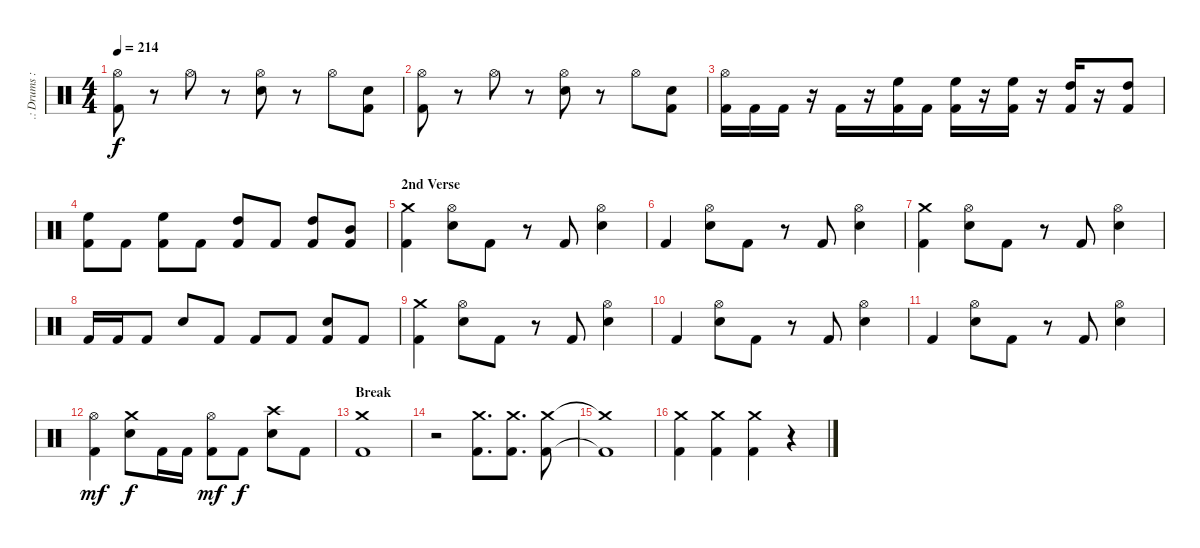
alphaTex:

\track (".: Drums :." ".: Drums :") {instrument percussion}
\staff {score}
\articulation defaults
\ts (4 4)
\tempo 214
\clef neutral
\ks c
("Kick (hit) 2" "Hi-Hat (open)").8{dy f} r.8 "Hi-Hat (open)".8 r.8 ("Snare (hit) 2" "Hi-Hat (open)").8 r.8 "Hi-Hat (open)".8 ("Snare (hit) 2" "Kick (hit) 2").8 |
("Kick (hit) 2" "Hi-Hat (open)").8 r.8 "Hi-Hat (open)".8 r.8 ("Snare (hit) 2" "Hi-Hat (open)").8 r.8 "Hi-Hat (open)".8 ("Snare (hit) 2" "Kick (hit) 2").8 |
("Kick (hit) 2" "Hi-Hat (open)").16 "Kick (hit) 2".16 "Kick (hit) 2".16 r.16 "Kick (hit) 2".16 r.16 ("Kick (hit) 2" "High Floor Tom (hit)").16 "Kick (hit) 2".16 ("Kick (hit) 2" "High Floor Tom (hit)").16 r.16 ("Kick (hit) 2" "High Floor Tom (hit)").16 r.16 ("Kick (hit) 2" "High Tom (hit)").16 r.16 ("Kick (hit) 2" "High Tom (hit)").8 |
("Kick (hit) 2" "High Floor Tom (hit)").8 "Kick (hit) 2".8 ("Kick (hit) 2" "High Floor Tom (hit)").8 "Kick (hit) 2".8 ("Kick (hit) 2" "High Tom (hit)").8 "Kick (hit) 2".8 ("Kick (hit) 2" "High Tom (hit)").8 ("Kick (hit) 2" "Mid Tom (hit)").8 |
\section ("" "2nd Verse")
("Crash medium (hit)" "Kick (hit) 2").4 ("Snare (hit) 2" "Hi-Hat (open)").8 "Kick (hit) 2".8 r.8 "Kick (hit) 2".8 ("Snare (hit) 2" "Hi-Hat (open)").4 |
"Kick (hit) 2".4 ("Snare (hit) 2" "Hi-Hat (open)").8 "Kick (hit) 2".8 r.8 "Kick (hit) 2".8 ("Snare (hit) 2" "Hi-Hat (open)").4 |
("Crash medium (hit)" "Kick (hit) 2").4 ("Snare (hit) 2" "Hi-Hat (open)").8 "Kick (hit) 2".8 r.8 "Kick (hit) 2".8 ("Snare (hit) 2" "Hi-Hat (open)").4 |
"Kick (hit) 2".16 "Kick (hit) 2".16 "Kick (hit) 2".8 "Snare (hit) 2".8 "Kick (hit) 2".8 "Kick (hit) 2".8 "Kick (hit) 2".8 ("Kick (hit) 2" "Snare (hit) 2").8 "Kick (hit) 2".8 |
("Crash medium (hit)" "Kick (hit) 2").4 ("Snare (hit) 2" "Hi-Hat (open)").8 "Kick (hit) 2".8 r.8 "Kick (hit) 2".8 ("Snare (hit) 2" "Hi-Hat (open)").4 |
"Kick (hit) 2".4 ("Electric Snare (hit)" "Hi-Hat (open)").8 "Kick (hit) 2".8 r.8 "Kick (hit) 2".8 ("Electric Snare (hit)" "Hi-Hat (open)").4 |
"Kick (hit) 2".4 ("Electric Snare (hit)" "Hi-Hat (open)").8 "Kick (hit) 2".8 r.8 "Kick (hit) 2".8 ("Electric Snare (hit)" "Hi-Hat (open)").4 |
("Hi-Hat (open)" "Kick (hit) 2").4{dy mf} ("Crash medium (hit)" "Electric Snare (hit)").8{dy f} "Kick (hit) 2".16 "Kick (hit) 2".16 ("Hi-Hat (open)" "Kick (hit) 2").8{dy mf} "Kick (hit) 2".8{dy f} ("Crash high (hit)" "Electric Snare (hit)").8 "Kick (hit) 2".8 |
\section ("" "Break")
("Kick (hit) 2" "Crash medium (hit)").1 |
r.2 ("Kick (hit) 2" "Crash medium (hit)").8{d} ("Kick (hit) 2" "Crash medium (hit)").8{d} ("Kick (hit) 2" "Crash medium (hit)").8 |
("Kick (hit) 2"{t} "Crash medium (hit)"{t}).1 |
("Kick (hit) 2" "Crash medium (hit)").4 ("Kick (hit) 2" "Crash medium (hit)").4 ("Kick (hit) 2" "Crash medium (hit)").4 r.4
